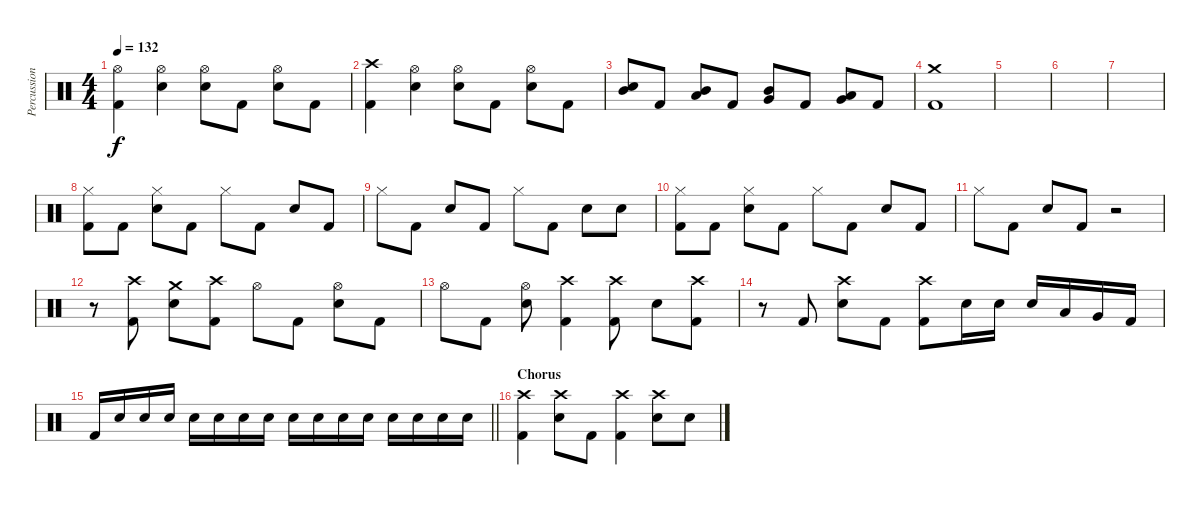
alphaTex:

\track ("Percussion" "Percussion") {instrument percussion}
\staff {score}
\articulation defaults
\ts (4 4)
\tempo 132
\clef neutral
\ks c
("Hi-Hat (open)" "Kick (hit) 2").4{dy f} ("Hi-Hat (open)" "Snare (hit) 2").4 ("Hi-Hat (open)" "Snare (hit) 2").8 "Kick (hit) 2".8 ("Hi-Hat (open)" "Snare (hit) 2").8 "Kick (hit) 2".8 |
("Crash high (hit)" "Kick (hit) 2").4 ("Hi-Hat (open)" "Snare (hit) 2").4 ("Hi-Hat (open)" "Snare (hit) 2").8 "Kick (hit) 2".8 ("Hi-Hat (open)" "Snare (hit) 2").8 "Kick (hit) 2".8 |
("Mid Tom (hit)" "Snare (hit) 2").8 "Kick (hit) 2".8 ("Low Tom (hit)" "Mid Tom (hit)").8 "Kick (hit) 2".8 ("Very Low Tom (hit)" "Mid Tom (hit)").8 "Kick (hit) 2".8 ("Very Low Tom (hit)" "Low Tom (hit)").8 "Kick (hit) 2".8 |
("Crash medium (hit)" "Kick (hit) 2").1 |
|
|
|
("Hi-Hat (closed)" "Kick (hit) 2").8{volume 8} "Kick (hit) 2".8 ("Hi-Hat (closed)" "Snare (hit) 2").8 "Kick (hit) 2".8 "Hi-Hat (closed)".8 "Kick (hit) 2".8 "Snare (hit) 2".8 "Kick (hit) 2".8 |
"Hi-Hat (closed)".8 "Kick (hit) 2".8 "Snare (hit) 2".8 "Kick (hit) 2".8 "Hi-Hat (closed)".8 "Kick (hit) 2".8 "Snare (hit) 2".8 "Snare (hit) 2".8 |
("Hi-Hat (closed)" "Kick (hit) 2").8 "Kick (hit) 2".8 ("Hi-Hat (closed)" "Snare (hit) 2").8 "Kick (hit) 2".8 "Hi-Hat (closed)".8 "Kick (hit) 2".8 "Snare (hit) 2".8 "Kick (hit) 2".8 |
"Hi-Hat (closed)".8 "Kick (hit) 2".8 "Snare (hit) 2".8 "Kick (hit) 2".8 r.2 |
r.8{volume 13} ("Crash high (hit)" "Kick (hit) 2").8 ("Crash medium (hit)" "Snare (hit) 2").8 ("Crash high (hit)" "Kick (hit) 2").8 "Hi-Hat (open)".8 "Kick (hit) 2".8 ("Hi-Hat (open)" "Snare (hit) 2").8 "Kick (hit) 2".8 |
"Hi-Hat (open)".8 "Kick (hit) 2".8 ("Hi-Hat (open)" "Snare (hit) 2").8 ("Crash high (hit)" "Kick (hit) 2").4 ("Crash high (hit)" "Kick (hit) 2").8 "Snare (hit) 2".8 ("Crash high (hit)" "Kick (hit) 2").8 |
r.8 "Kick (hit) 2".8 ("Crash high (hit)" "Snare (hit) 2").8 "Kick (hit) 2".8 ("Crash high (hit)" "Kick (hit) 2").8 "Snare (hit) 2".16 "Snare (hit) 2".16 "Snare (hit) 2".16 "Low Tom (hit)".16 "Very Low Tom (hit)".16 "Kick (hit) 2".16 |
\barLineRight lightlight "Kick (hit) 2".16 "Snare (hit) 2".16{volume 5} "Snare (hit) 2".16 "Snare (hit) 2".16 "Snare (hit) 2".16{volume 13} "Snare (hit) 2".16 "Snare (hit) 2".16 "Snare (hit) 2".16 "Snare (hit) 2".16 "Snare (hit) 2".16 "Snare (hit) 2".16 "Snare (hit) 2".16 "Snare (hit) 2".16 "Snare (hit) 2".16 "Snare (hit) 2".16 "Snare (hit) 2".16
|
\section ("" "Chorus")
("Crash high (hit)" "Kick (hit) 2").4 ("Crash high (hit)" "Snare (hit) 2").8 "Kick (hit) 2".8 ("Crash high (hit)" "Kick (hit) 2").4 ("Crash high (hit)" "Snare (hit) 2").8 "Snare (hit) 2".8
